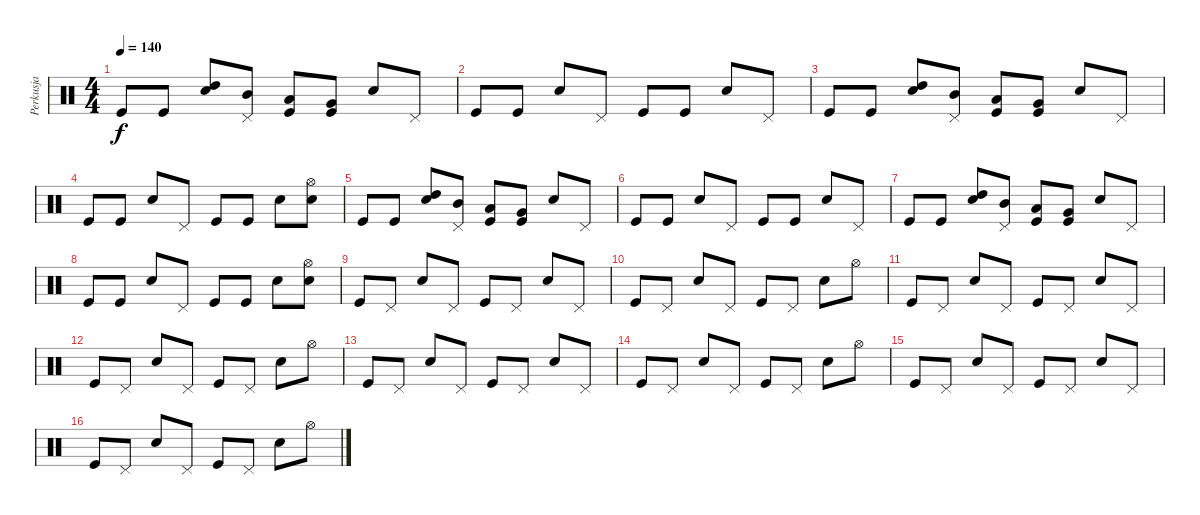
\track ("Perkusja" "Perkusja") {instrument percussion}
\staff {score}
\articulation defaults
\ts (4 4)
\tempo 140
\clef neutral
\ks c "Kick (hit)".8{dy f} "Kick (hit)".8
("Electric Snare (hit)" "High Tom (hit)").8 ("Mid Tom (hit)" "Pedal Hi-Hat (hit)").8 ("Kick (hit)" "Low Tom (hit)").8 ("Kick (hit)" "Very Low Tom (hit)").8 "Electric Snare (hit)".8 "Pedal Hi-Hat (hit)".8 |
"Kick (hit)".8 "Kick (hit)".8 "Electric Snare (hit)".8 "Pedal Hi-Hat (hit)".8 "Kick (hit)".8 "Kick (hit)".8 "Electric Snare (hit)".8 "Pedal Hi-Hat (hit)".8 |
"Kick (hit)".8 "Kick (hit)".8 ("Electric Snare (hit)" "High Tom (hit)").8 ("Mid Tom (hit)" "Pedal Hi-Hat (hit)").8 ("Kick (hit)" "Low Tom (hit)").8 ("Kick (hit)" "Very Low Tom (hit)").8 "Electric Snare (hit)".8 "Pedal Hi-Hat (hit)".8 |
"Kick (hit)".8 "Kick (hit)".8 "Electric Snare (hit)".8 "Pedal Hi-Hat (hit)".8 "Kick (hit)".8 "Kick (hit)".8 "Electric Snare (hit)".8 ("Hi-Hat (open)" "Electric Snare (hit)").8 |
"Kick (hit)".8 "Kick (hit)".8 ("Electric Snare (hit)" "High Tom (hit)").8 ("Mid Tom (hit)" "Pedal Hi-Hat (hit)").8 ("Kick (hit)" "Low Tom (hit)").8 ("Kick (hit)" "Very Low Tom (hit)").8 "Electric Snare (hit)".8 "Pedal Hi-Hat (hit)".8 |
"Kick (hit)".8 "Kick (hit)".8 "Electric Snare (hit)".8 "Pedal Hi-Hat (hit)".8 "Kick (hit)".8 "Kick (hit)".8 "Electric Snare (hit)".8 "Pedal Hi-Hat (hit)".8 |
"Kick (hit)".8 "Kick (hit)".8 ("Electric Snare (hit)" "High Tom (hit)").8 ("Mid Tom (hit)" "Pedal Hi-Hat (hit)").8 ("Kick (hit)" "Low Tom (hit)").8 ("Kick (hit)" "Very Low Tom (hit)").8 "Electric Snare (hit)".8 "Pedal Hi-Hat (hit)".8 |
"Kick (hit)".8 "Kick (hit)".8 "Electric Snare (hit)".8 "Pedal Hi-Hat (hit)".8 "Kick (hit)".8 "Kick (hit)".8 "Electric Snare (hit)".8 ("Hi-Hat (open)" "Electric Snare (hit)").8 |
"Kick (hit)".8 "Pedal Hi-Hat (hit)".8 "Electric Snare (hit)".8 "Pedal Hi-Hat (hit)".8 "Kick (hit)".8 "Pedal Hi-Hat (hit)".8 "Electric Snare (hit)".8 "Pedal Hi-Hat (hit)".8 |
"Kick (hit)".8 "Pedal Hi-Hat (hit)".8 "Electric Snare (hit)".8 "Pedal Hi-Hat (hit)".8 "Kick (hit)".8 "Pedal Hi-Hat (hit)".8 "Electric Snare (hit)".8 "Hi-Hat (open)".8 |
"Kick (hit)".8 "Pedal Hi-Hat (hit)".8 "Electric Snare (hit)".8 "Pedal Hi-Hat (hit)".8 "Kick (hit)".8 "Pedal Hi-Hat (hit)".8 "Electric Snare (hit)".8 "Pedal Hi-Hat (hit)".8 |
"Kick (hit)".8 "Pedal Hi-Hat (hit)".8 "Electric Snare (hit)".8 "Pedal Hi-Hat (hit)".8 "Kick (hit)".8 "Pedal Hi-Hat (hit)".8 "Electric Snare (hit)".8 "Hi-Hat (open)".8 |
"Kick (hit)".8 "Pedal Hi-Hat (hit)".8 "Electric Snare (hit)".8 "Pedal Hi-Hat (hit)".8 "Kick (hit)".8 "Pedal Hi-Hat (hit)".8 "Electric Snare (hit)".8 "Pedal Hi-Hat (hit)".8 |
"Kick (hit)".8 "Pedal Hi-Hat (hit)".8 "Electric Snare (hit)".8 "Pedal Hi-Hat (hit)".8 "Kick (hit)".8 "Pedal Hi-Hat (hit)".8 "Electric Snare (hit)".8 "Hi-Hat (open)".8 |
"Kick (hit)".8 "Pedal Hi-Hat (hit)".8 "Electric Snare (hit)".8 "Pedal Hi-Hat (hit)".8 "Kick (hit)".8 "Pedal Hi-Hat (hit)".8 "Electric Snare (hit)".8 "Pedal Hi-Hat (hit)".8 |
"Kick (hit)".8 "Pedal Hi-Hat (hit)".8 "Electric Snare (hit)".8 "Pedal Hi-Hat (hit)".8 "Kick (hit)".8 "Pedal Hi-Hat (hit)".8 "Electric Snare (hit)".8 "Hi-Hat (open)".8
